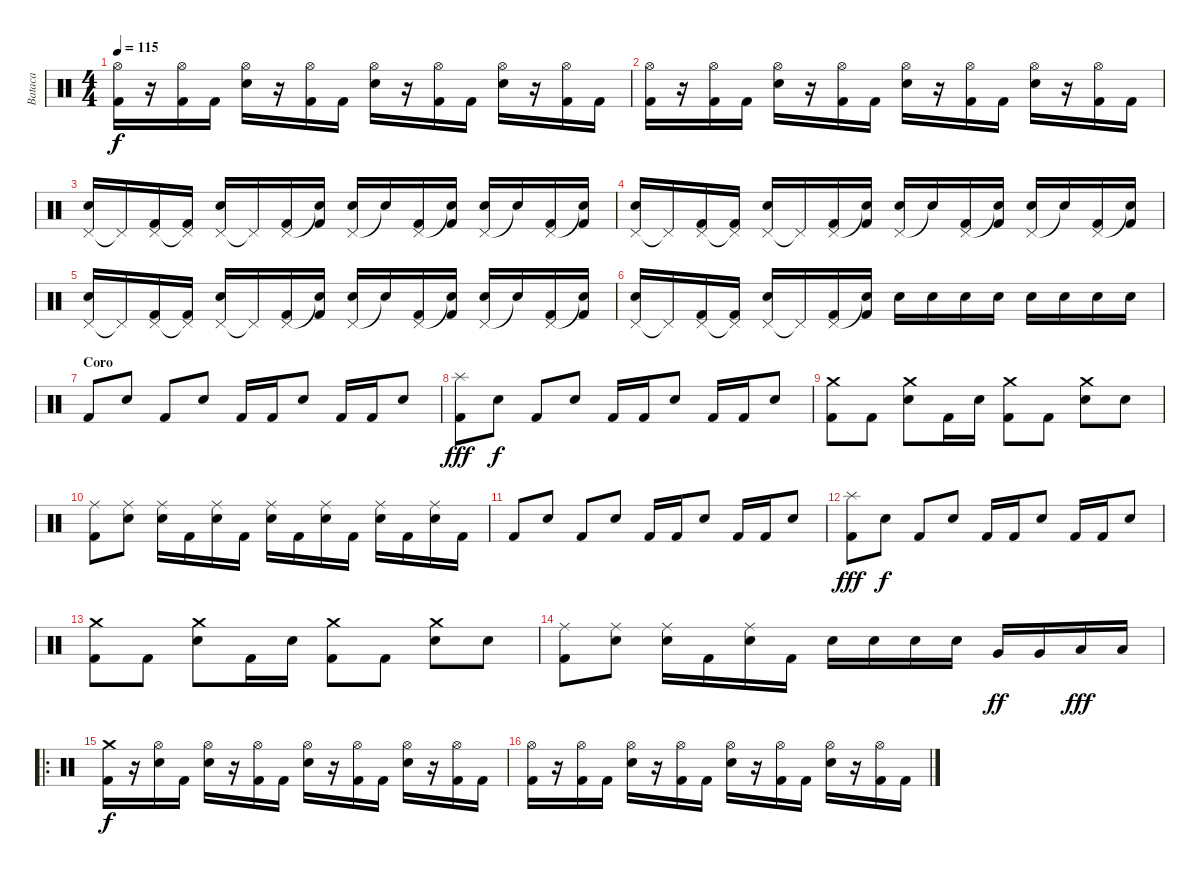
\track ("Bataca" "Bataca") {instrument percussion}
\staff {score}
\articulation defaults
\ts (4 4)
\tempo 115
\clef neutral
\ks c
("Hi-Hat (open)" "Kick (hit) 2").16{dy f} r.16 ("Hi-Hat (open)" "Kick (hit) 2").16 "Kick (hit) 2".16 ("Hi-Hat (open)" "Electric Snare (hit)").16 r.16 ("Hi-Hat (open)" "Kick (hit) 2").16 "Kick (hit) 2".16 ("Hi-Hat (open)" "Electric Snare (hit)").16 r.16 ("Hi-Hat (open)" "Kick (hit) 2").16 "Kick (hit) 2".16 ("Hi-Hat (open)" "Electric Snare (hit)").16 r.16 ("Hi-Hat (open)" "Kick (hit) 2").16 "Kick (hit) 2".16 |
("Hi-Hat (open)" "Kick (hit) 2").16 r.16 ("Hi-Hat (open)" "Kick (hit) 2").16 "Kick (hit) 2".16 ("Hi-Hat (open)" "Electric Snare (hit)").16 r.16 ("Hi-Hat (open)" "Kick (hit) 2").16 "Kick (hit) 2".16 ("Hi-Hat (open)" "Electric Snare (hit)").16 r.16 ("Hi-Hat (open)" "Kick (hit) 2").16 "Kick (hit) 2".16 ("Hi-Hat (open)" "Electric Snare (hit)").16 r.16 ("Hi-Hat (open)" "Kick (hit) 2").16 "Kick (hit) 2".16 |
("Pedal Hi-Hat (hit)" "Electric Snare (hit)").16 "Pedal Hi-Hat (hit)"{t}.16 ("Pedal Hi-Hat (hit)" "Kick (hit) 2").16 ("Pedal Hi-Hat (hit)"{t} "Kick (hit) 2").16 ("Pedal Hi-Hat (hit)" "Electric Snare (hit)").16 "Pedal Hi-Hat (hit)"{t}.16 ("Pedal Hi-Hat (hit)" "Kick (hit) 2").16 ("Snare (hit)"{t} "Kick (hit) 2").16 ("Pedal Hi-Hat (hit)" "Electric Snare (hit)").16 "Snare (hit)"{t}.16 ("Pedal Hi-Hat (hit)" "Kick (hit) 2").16 ("Snare (hit)"{t} "Kick (hit) 2").16 ("Pedal Hi-Hat (hit)" "Electric Snare (hit)").16 "Snare (hit)"{t}.16 ("Pedal Hi-Hat (hit)" "Kick (hit) 2").16 ("Snare (hit)"{t} "Kick (hit) 2").16 |
("Pedal Hi-Hat (hit)" "Electric Snare (hit)").16 "Pedal Hi-Hat (hit)"{t}.16 ("Pedal Hi-Hat (hit)" "Kick (hit) 2").16 ("Pedal Hi-Hat (hit)"{t} "Kick (hit) 2").16 ("Pedal Hi-Hat (hit)" "Electric Snare (hit)").16 "Pedal Hi-Hat (hit)"{t}.16 ("Pedal Hi-Hat (hit)" "Kick (hit) 2").16 ("Snare (hit)"{t} "Kick (hit) 2").16 ("Pedal Hi-Hat (hit)" "Electric Snare (hit)").16 "Snare (hit)"{t}.16 ("Pedal Hi-Hat (hit)" "Kick (hit) 2").16 ("Snare (hit)"{t} "Kick (hit) 2").16 ("Pedal Hi-Hat (hit)" "Electric Snare (hit)").16 "Snare (hit)"{t}.16 ("Pedal Hi-Hat (hit)" "Kick (hit) 2").16 ("Snare (hit)"{t} "Kick (hit) 2").16 |
("Pedal Hi-Hat (hit)" "Electric Snare (hit)").16 "Pedal Hi-Hat (hit)"{t}.16 ("Pedal Hi-Hat (hit)" "Kick (hit) 2").16 ("Pedal Hi-Hat (hit)"{t} "Kick (hit) 2").16 ("Pedal Hi-Hat (hit)" "Electric Snare (hit)").16 "Pedal Hi-Hat (hit)"{t}.16 ("Pedal Hi-Hat (hit)" "Kick (hit) 2").16 ("Snare (hit)"{t} "Kick (hit) 2").16 ("Pedal Hi-Hat (hit)" "Electric Snare (hit)").16 "Snare (hit)"{t}.16 ("Pedal Hi-Hat (hit)" "Kick (hit) 2").16 ("Snare (hit)"{t} "Kick (hit) 2").16 ("Pedal Hi-Hat (hit)" "Electric Snare (hit)").16 "Snare (hit)"{t}.16 ("Pedal Hi-Hat (hit)" "Kick (hit) 2").16 ("Snare (hit)"{t} "Kick (hit) 2").16 |
("Pedal Hi-Hat (hit)" "Electric Snare (hit)").16 "Pedal Hi-Hat (hit)"{t}.16 ("Pedal Hi-Hat (hit)" "Kick (hit) 2").16 ("Pedal Hi-Hat (hit)"{t} "Kick (hit) 2").16 ("Pedal Hi-Hat (hit)" "Electric Snare (hit)").16 "Pedal Hi-Hat (hit)"{t}.16 ("Pedal Hi-Hat (hit)" "Kick (hit) 2").16 ("Snare (hit)"{t} "Kick (hit) 2").16 "Electric Snare (hit)".16 "Electric Snare (hit)".16 "Electric Snare (hit)".16 "Electric Snare (hit)".16 "Electric Snare (hit)".16 "Electric Snare (hit)".16 "Electric Snare (hit)".16 "Electric Snare (hit)".16 |
\section ("" "Coro")
"Kick (hit) 2".8 "Electric Snare (hit)".8 "Kick (hit) 2".8 "Electric Snare (hit)".8 "Kick (hit) 2".16 "Kick (hit) 2".16 "Electric Snare (hit)".8 "Kick (hit) 2".16 "Kick (hit) 2".16 "Electric Snare (hit)".8 |
("Splash (hit)" "Kick (hit) 2").8{dy fff} "Electric Snare (hit)".8{dy f} "Kick (hit) 2".8 "Electric Snare (hit)".8 "Kick (hit) 2".16 "Kick (hit) 2".16 "Electric Snare (hit)".8 "Kick (hit) 2".16 "Kick (hit) 2".16 "Electric Snare (hit)".8 |
("Crash medium (hit)" "Kick (hit) 2").8 "Kick (hit) 2".8 ("Crash medium (hit)" "Electric Snare (hit)").8 "Kick (hit) 2".16 "Electric Snare (hit)".16 ("Crash medium (hit)" "Kick (hit) 2").8 "Kick (hit) 2".8 ("Crash medium (hit)" "Electric Snare (hit)").8 "Electric Snare (hit)".8 |
("Ride (middle)" "Kick (hit) 2").8 ("Ride (middle)" "Electric Snare (hit)").8 ("Ride (middle)" "Electric Snare (hit)").16 "Kick (hit) 2".16 ("Ride (middle)" "Electric Snare (hit)").16 "Kick (hit) 2".16 ("Ride (middle)" "Electric Snare (hit)").16 "Kick (hit) 2".16 ("Ride (middle)" "Electric Snare (hit)").16 "Kick (hit) 2".16 ("Ride (middle)" "Electric Snare (hit)").16 "Kick (hit) 2".16 ("Ride (middle)" "Electric Snare (hit)").16 "Kick (hit) 2".16 |
"Kick (hit) 2".8 "Electric Snare (hit)".8 "Kick (hit) 2".8 "Electric Snare (hit)".8 "Kick (hit) 2".16 "Kick (hit) 2".16 "Electric Snare (hit)".8 "Kick (hit) 2".16 "Kick (hit) 2".16 "Electric Snare (hit)".8 |
("Splash (hit)" "Kick (hit) 2").8{dy fff} "Electric Snare (hit)".8{dy f} "Kick (hit) 2".8 "Electric Snare (hit)".8 "Kick (hit) 2".16 "Kick (hit) 2".16 "Electric Snare (hit)".8 "Kick (hit) 2".16 "Kick (hit) 2".16 "Electric Snare (hit)".8 |
("Crash medium (hit)" "Kick (hit) 2").8 "Kick (hit) 2".8 ("Crash medium (hit)" "Electric Snare (hit)").8 "Kick (hit) 2".16 "Electric Snare (hit)".16 ("Crash medium (hit)" "Kick (hit) 2").8 "Kick (hit) 2".8 ("Crash medium (hit)" "Electric Snare (hit)").8 "Electric Snare (hit)".8 |
("Ride (middle)" "Kick (hit) 2").8 ("Ride (middle)" "Electric Snare (hit)").8 ("Ride (middle)" "Electric Snare (hit)").16 "Kick (hit) 2".16 ("Ride (middle)" "Electric Snare (hit)").16 "Kick (hit) 2".16 "Electric Snare (hit)".16 "Electric Snare (hit)".16 "Electric Snare (hit)".16 "Electric Snare (hit)".16 "Very Low Tom (hit)".16{dy ff} "Very Low Tom (hit)".16 "Low Tom (hit)".16{dy fff} "Low Tom (hit)".16 |
\ro
("Crash medium (hit)" "Kick (hit) 2").16{dy f} r.16 ("Hi-Hat (open)" "Electric Snare (hit)").16 "Kick (hit) 2".16 ("Hi-Hat (open)" "Electric Snare (hit)").16 r.16 ("Hi-Hat (open)" "Kick (hit) 2").16 "Kick (hit) 2".16 ("Hi-Hat (open)" "Electric Snare (hit)").16 r.16 ("Hi-Hat (open)" "Kick (hit) 2").16 "Kick (hit) 2".16 ("Hi-Hat (open)" "Electric Snare (hit)").16 r.16 ("Hi-Hat (open)" "Kick (hit) 2").16 "Kick (hit) 2".16 |
("Hi-Hat (open)" "Kick (hit) 2").16 r.16 ("Hi-Hat (open)" "Kick (hit) 2").16 "Kick (hit) 2".16 ("Hi-Hat (open)" "Electric Snare (hit)").16 r.16 ("Hi-Hat (open)" "Kick (hit) 2").16 "Kick (hit) 2".16 ("Hi-Hat (open)" "Electric Snare (hit)").16 r.16 ("Hi-Hat (open)" "Kick (hit) 2").16 "Kick (hit) 2".16 ("Hi-Hat (open)" "Electric Snare (hit)").16 r.16 ("Hi-Hat (open)" "Kick (hit) 2").16 "Kick (hit) 2".16
